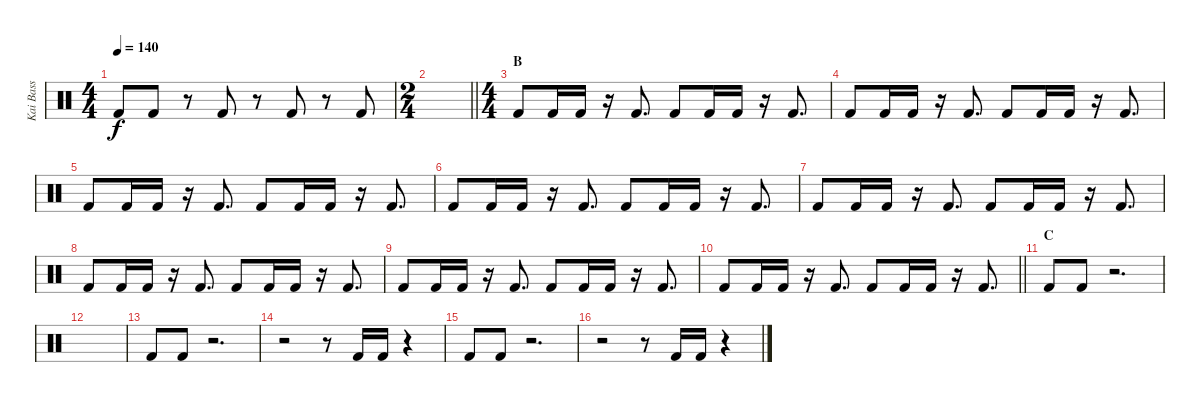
\track ("Kai Bass" "Kai Bass") {instrument percussion}
\staff {score}
\articulation defaults
\ts (4 4)
\tempo 140
\clef neutral
\ks c "Kick (hit) 2".8{dy f} "Kick (hit) 2".8
r.8 "Kick (hit) 2".8 r.8 "Kick (hit) 2".8 r.8 "Kick (hit) 2".8 |
\ts (2 4)
\barLineRight lightlight
|
\ts (4 4)
\section ("" "B")
"Kick (hit) 2".8 "Kick (hit) 2".16 "Kick (hit) 2".16 r.16 "Kick (hit) 2".8{d} "Kick (hit) 2".8 "Kick (hit) 2".16 "Kick (hit) 2".16 r.16 "Kick (hit) 2".8{d} |
"Kick (hit) 2".8 "Kick (hit) 2".16 "Kick (hit) 2".16 r.16 "Kick (hit) 2".8{d} "Kick (hit) 2".8 "Kick (hit) 2".16 "Kick (hit) 2".16 r.16 "Kick (hit) 2".8{d} |
"Kick (hit) 2".8 "Kick (hit) 2".16 "Kick (hit) 2".16 r.16 "Kick (hit) 2".8{d} "Kick (hit) 2".8 "Kick (hit) 2".16 "Kick (hit) 2".16 r.16 "Kick (hit) 2".8{d} |
"Kick (hit) 2".8 "Kick (hit) 2".16 "Kick (hit) 2".16 r.16 "Kick (hit) 2".8{d} "Kick (hit) 2".8 "Kick (hit) 2".16 "Kick (hit) 2".16 r.16 "Kick (hit) 2".8{d} |
"Kick (hit) 2".8 "Kick (hit) 2".16 "Kick (hit) 2".16 r.16 "Kick (hit) 2".8{d} "Kick (hit) 2".8 "Kick (hit) 2".16 "Kick (hit) 2".16 r.16 "Kick (hit) 2".8{d} |
"Kick (hit) 2".8 "Kick (hit) 2".16 "Kick (hit) 2".16 r.16 "Kick (hit) 2".8{d} "Kick (hit) 2".8 "Kick (hit) 2".16 "Kick (hit) 2".16 r.16 "Kick (hit) 2".8{d} |
"Kick (hit) 2".8 "Kick (hit) 2".16 "Kick (hit) 2".16 r.16 "Kick (hit) 2".8{d} "Kick (hit) 2".8 "Kick (hit) 2".16 "Kick (hit) 2".16 r.16 "Kick (hit) 2".8{d} |
\barLineRight lightlight "Kick (hit) 2".8 "Kick (hit) 2".16 "Kick (hit) 2".16
r.16 "Kick (hit) 2".8{d} "Kick (hit) 2".8 "Kick (hit) 2".16 "Kick (hit) 2".16 r.16 "Kick (hit) 2".8{d} |
\section ("" "C")
"Kick (hit) 2".8 "Kick (hit) 2".8 r.2{d} |
|
"Kick (hit) 2".8 "Kick (hit) 2".8 r.2{d} |
r.2 r.8 "Kick (hit) 2".16 "Kick (hit) 2".16 r.4 |
"Kick (hit) 2".8 "Kick (hit) 2".8 r.2{d} |
r.2 r.8 "Kick (hit) 2".16 "Kick (hit) 2".16 r.4
